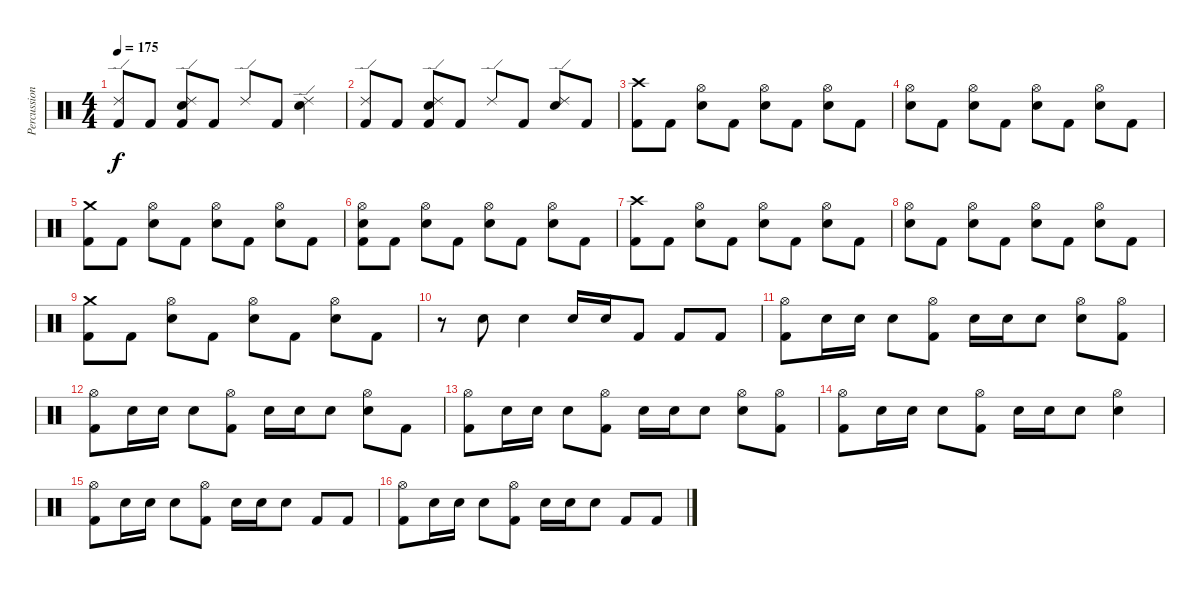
\track ("Percussion" "Percussion") {instrument percussion}
\staff {score}
\articulation defaults
\ts (4 4)
\tempo 175
\clef neutral
\ks c
("Ride (edge) 2" "Kick (hit) 2").8{dy f} "Kick (hit) 2".8 ("Ride (edge) 2" "Snare (hit) 2" "Kick (hit) 2").8 "Kick (hit) 2".8 "Ride (edge) 2".8 "Kick (hit) 2".8 ("Ride (edge) 2" "Snare (hit) 2").4 |
("Ride (edge) 2" "Kick (hit) 2").8 "Kick (hit) 2".8 ("Ride (edge) 2" "Snare (hit) 2" "Kick (hit) 2").8 "Kick (hit) 2".8 "Ride (edge) 2".8 "Kick (hit) 2".8 ("Ride (edge) 2" "Snare (hit) 2").8 "Kick (hit) 2".8 |
("Crash high (hit)" "Kick (hit) 2").8 "Kick (hit) 2".8 ("Hi-Hat (open)" "Snare (hit) 2").8 "Kick (hit) 2".8 ("Hi-Hat (open)" "Snare (hit) 2").8 "Kick (hit) 2".8 ("Hi-Hat (open)" "Snare (hit) 2").8 "Kick (hit) 2".8 |
("Hi-Hat (open)" "Snare (hit) 2").8 "Kick (hit) 2".8 ("Hi-Hat (open)" "Snare (hit) 2").8 "Kick (hit) 2".8 ("Hi-Hat (open)" "Snare (hit) 2").8 "Kick (hit) 2".8 ("Hi-Hat (open)" "Snare (hit) 2").8 "Kick (hit) 2".8 |
("Crash medium (hit)" "Kick (hit) 2").8 "Kick (hit) 2".8 ("Hi-Hat (open)" "Snare (hit) 2").8 "Kick (hit) 2".8 ("Hi-Hat (open)" "Snare (hit) 2").8 "Kick (hit) 2".8 ("Hi-Hat (open)" "Snare (hit) 2").8 "Kick (hit) 2".8 |
("Hi-Hat (open)" "Snare (hit) 2" "Kick (hit) 2").8 "Kick (hit) 2".8 ("Hi-Hat (open)" "Snare (hit) 2").8 "Kick (hit) 2".8 ("Hi-Hat (open)" "Snare (hit) 2").8 "Kick (hit) 2".8 ("Hi-Hat (open)" "Snare (hit) 2").8 "Kick (hit) 2".8 |
("Crash high (hit)" "Kick (hit) 2").8 "Kick (hit) 2".8 ("Hi-Hat (open)" "Snare (hit) 2").8 "Kick (hit) 2".8 ("Hi-Hat (open)" "Snare (hit) 2").8 "Kick (hit) 2".8 ("Hi-Hat (open)" "Snare (hit) 2").8 "Kick (hit) 2".8 |
("Hi-Hat (open)" "Snare (hit) 2").8 "Kick (hit) 2".8 ("Hi-Hat (open)" "Snare (hit) 2").8 "Kick (hit) 2".8 ("Hi-Hat (open)" "Snare (hit) 2").8 "Kick (hit) 2".8 ("Hi-Hat (open)" "Snare (hit) 2").8 "Kick (hit) 2".8 |
("Crash medium (hit)" "Kick (hit) 2").8 "Kick (hit) 2".8 ("Hi-Hat (open)" "Snare (hit) 2").8 "Kick (hit) 2".8 ("Hi-Hat (open)" "Snare (hit) 2").8 "Kick (hit) 2".8 ("Hi-Hat (open)" "Snare (hit) 2").8 "Kick (hit) 2".8 |
r.8 "Snare (hit) 2".8 "Snare (hit) 2".4 "Snare (hit) 2".16 "Snare (hit) 2".16 "Kick (hit) 2".8 "Kick (hit) 2".8 "Kick (hit) 2".8 |
("Hi-Hat (open)" "Kick (hit) 2").8 "Snare (hit) 2".16 "Snare (hit) 2".16 "Snare (hit) 2".8 ("Hi-Hat (open)" "Kick (hit) 2").8 "Snare (hit) 2".16 "Snare (hit) 2".16 "Snare (hit) 2".8 ("Hi-Hat (open)" "Snare (hit) 2").8 ("Hi-Hat (open)" "Kick (hit) 2").8 |
("Hi-Hat (open)" "Kick (hit) 2").8 "Snare (hit) 2".16 "Snare (hit) 2".16 "Snare (hit) 2".8 ("Hi-Hat (open)" "Kick (hit) 2").8 "Snare (hit) 2".16 "Snare (hit) 2".16 "Snare (hit) 2".8 ("Hi-Hat (open)" "Snare (hit) 2").8 "Kick (hit) 2".8 |
("Hi-Hat (open)" "Kick (hit) 2").8 "Snare (hit) 2".16 "Snare (hit) 2".16 "Snare (hit) 2".8 ("Hi-Hat (open)" "Kick (hit) 2").8 "Snare (hit) 2".16 "Snare (hit) 2".16 "Snare (hit) 2".8 ("Hi-Hat (open)" "Snare (hit) 2").8 ("Hi-Hat (open)" "Kick (hit) 2").8 |
("Hi-Hat (open)" "Kick (hit) 2").8 "Snare (hit) 2".16 "Snare (hit) 2".16 "Snare (hit) 2".8 ("Hi-Hat (open)" "Kick (hit) 2").8 "Snare (hit) 2".16 "Snare (hit) 2".16 "Snare (hit) 2".8 ("Hi-Hat (open)" "Snare (hit) 2").4 |
("Hi-Hat (open)" "Kick (hit) 2").8 "Snare (hit) 2".16 "Snare (hit) 2".16 "Snare (hit) 2".8 ("Hi-Hat (open)" "Kick (hit) 2").8 "Snare (hit) 2".16 "Snare (hit) 2".16 "Snare (hit) 2".8 "Kick (hit) 2".8 "Kick (hit) 2".8 |
("Hi-Hat (open)" "Kick (hit) 2").8 "Snare (hit) 2".16 "Snare (hit) 2".16 "Snare (hit) 2".8 ("Hi-Hat (open)" "Kick (hit) 2").8 "Snare (hit) 2".16 "Snare (hit) 2".16 "Snare (hit) 2".8 "Kick (hit) 2".8 "Kick (hit) 2".8
